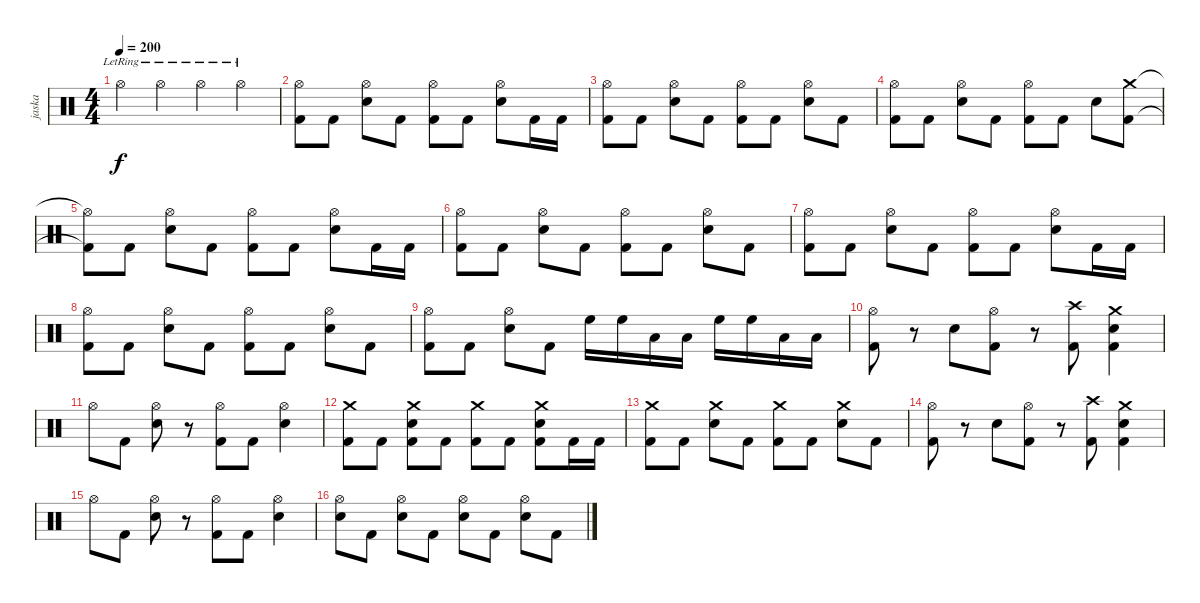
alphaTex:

\track ("jaska" "jaska") {instrument percussion}
\staff {score}
\articulation defaults
\ts (4 4)
\tempo 200
\clef neutral
\ks c "Hi-Hat (open)"{lr}.4{dy f} "Hi-Hat (open)"{lr}.4 "Hi-Hat (open)"{lr}.4 "Hi-Hat (open)"{lr}.4
|
("Hi-Hat (open)" "Kick (hit) 2").8{volume 16} "Kick (hit) 2".8 ("Hi-Hat (open)" "Snare (hit) 2").8 "Kick (hit) 2".8 ("Hi-Hat (open)" "Kick (hit) 2").8 "Kick (hit) 2".8 ("Hi-Hat (open)" "Snare (hit) 2").8 "Kick (hit) 2".16 "Kick (hit) 2".16 |
("Hi-Hat (open)" "Kick (hit) 2").8 "Kick (hit) 2".8 ("Hi-Hat (open)" "Snare (hit) 2").8 "Kick (hit) 2".8 ("Hi-Hat (open)" "Kick (hit) 2").8 "Kick (hit) 2".8 ("Hi-Hat (open)" "Snare (hit) 2").8 "Kick (hit) 2".8 |
("Hi-Hat (open)" "Kick (hit) 2").8 "Kick (hit) 2".8 ("Hi-Hat (open)" "Snare (hit) 2").8 "Kick (hit) 2".8 ("Hi-Hat (open)" "Kick (hit) 2").8 "Kick (hit) 2".8 "Snare (hit) 2".8 ("Crash medium (hit)" "Kick (hit) 2").8 |
("Hi-Hat (open)"{t} "Kick (hit) 2"{t}).8 "Kick (hit) 2".8 ("Hi-Hat (open)" "Snare (hit) 2").8 "Kick (hit) 2".8 ("Hi-Hat (open)" "Kick (hit) 2").8 "Kick (hit) 2".8 ("Hi-Hat (open)" "Snare (hit) 2").8 "Kick (hit) 2".16 "Kick (hit) 2".16 |
("Hi-Hat (open)" "Kick (hit) 2").8 "Kick (hit) 2".8 ("Hi-Hat (open)" "Snare (hit) 2").8 "Kick (hit) 2".8 ("Hi-Hat (open)" "Kick (hit) 2").8 "Kick (hit) 2".8 ("Hi-Hat (open)" "Snare (hit) 2").8 "Kick (hit) 2".8 |
("Hi-Hat (open)" "Kick (hit) 2").8 "Kick (hit) 2".8 ("Hi-Hat (open)" "Snare (hit) 2").8 "Kick (hit) 2".8 ("Hi-Hat (open)" "Kick (hit) 2").8 "Kick (hit) 2".8 ("Hi-Hat (open)" "Snare (hit) 2").8 "Kick (hit) 2".16 "Kick (hit) 2".16 |
("Hi-Hat (open)" "Kick (hit) 2").8 "Kick (hit) 2".8 ("Hi-Hat (open)" "Snare (hit) 2").8 "Kick (hit) 2".8 ("Hi-Hat (open)" "Kick (hit) 2").8 "Kick (hit) 2".8 ("Hi-Hat (open)" "Snare (hit) 2").8 "Kick (hit) 2".8 |
("Hi-Hat (open)" "Kick (hit) 2").8 "Kick (hit) 2".8 ("Hi-Hat (open)" "Snare (hit) 2").8 "Kick (hit) 2".8 "High Floor Tom (hit)".16 "High Floor Tom (hit)".16 "Low Tom (hit)".16 "Low Tom (hit)".16 "High Floor Tom (hit)".16 "High Floor Tom (hit)".16 "Low Tom (hit)".16 "Low Tom (hit)".16 |
("Hi-Hat (open)" "Kick (hit) 2").8 r.8 "Snare (hit) 2".8 ("Hi-Hat (open)" "Kick (hit) 2").8 r.8 ("Crash high (hit)" "Kick (hit) 2").8 ("Crash medium (hit)" "Snare (hit) 2" "Kick (hit) 2").4 |
"Hi-Hat (open)".8 "Kick (hit) 2".8 ("Hi-Hat (open)" "Snare (hit) 2").8 r.8 ("Hi-Hat (open)" "Kick (hit) 2").8 "Kick (hit) 2".8 ("Hi-Hat (open)" "Snare (hit) 2").4 |
("Crash medium (hit)" "Kick (hit) 2").8 "Kick (hit) 2".8 ("Crash medium (hit)" "Snare (hit) 2" "Kick (hit) 2").8 "Kick (hit) 2".8 ("Crash medium (hit)" "Kick (hit) 2").8 "Kick (hit) 2".8 ("Crash medium (hit)" "Snare (hit) 2" "Kick (hit) 2").8 "Kick (hit) 2".16 "Kick (hit) 2".16 |
("Crash medium (hit)" "Kick (hit) 2").8 "Kick (hit) 2".8 ("Crash medium (hit)" "Snare (hit) 2").8 "Kick (hit) 2".8 ("Crash medium (hit)" "Kick (hit) 2").8 "Kick (hit) 2".8 ("Crash medium (hit)" "Snare (hit) 2").8 "Kick (hit) 2".8 |
("Hi-Hat (open)" "Kick (hit) 2").8 r.8 "Snare (hit) 2".8 ("Hi-Hat (open)" "Kick (hit) 2").8 r.8 ("Crash high (hit)" "Kick (hit) 2").8 ("Crash medium (hit)" "Snare (hit) 2" "Kick (hit) 2").4 |
"Hi-Hat (open)".8 "Kick (hit) 2".8 ("Hi-Hat (open)" "Snare (hit) 2").8 r.8 ("Hi-Hat (open)" "Kick (hit) 2").8 "Kick (hit) 2".8 ("Hi-Hat (open)" "Snare (hit) 2").4 |
("Hi-Hat (open)" "Snare (hit) 2").8 "Kick (hit) 2".8 ("Hi-Hat (open)" "Snare (hit) 2").8 "Kick (hit) 2".8 ("Hi-Hat (open)" "Snare (hit) 2").8 "Kick (hit) 2".8 ("Hi-Hat (open)" "Snare (hit) 2").8 "Kick (hit) 2".8
